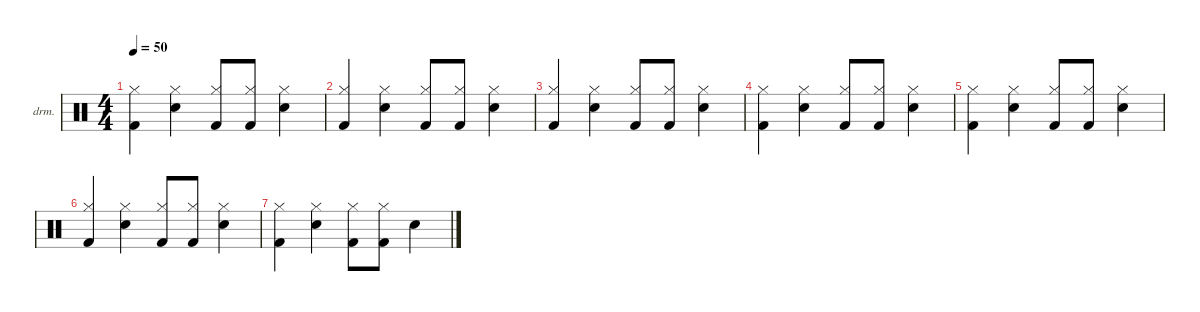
\defaultSystemsLayout 4
\hideDynamics
\bracketExtendMode nobrackets
\firstSystemTrackNameOrientation horizontal
\otherSystemsTrackNameOrientation horizontal
\track ("Drumkit" "drm.") {instrument percussion}
\staff {score}
\articulation defaults
\ts (4 4)
\tempo 50
\clef neutral
\ks c
("Kick (hit) 2" "Hi-Hat (closed)").4{dy mf beam Down} ("Snare (hit) 2" "Hi-Hat (closed)").4{beam Down} ("Kick (hit) 2" "Hi-Hat (closed)").8{beam Up} ("Kick (hit) 2" "Hi-Hat (closed)").8{beam Up} ("Snare (hit) 2" "Hi-Hat (closed)").4{beam Down} |
("Kick (hit) 2" "Hi-Hat (closed)").4{beam Up} ("Snare (hit) 2" "Hi-Hat (closed)").4{beam Down} ("Kick (hit) 2" "Hi-Hat (closed)").8{beam Up} ("Kick (hit) 2" "Hi-Hat (closed)").8{beam Up} ("Snare (hit) 2" "Hi-Hat (closed)").4{beam Down} |
("Kick (hit) 2" "Hi-Hat (closed)").4{beam Up} ("Snare (hit) 2" "Hi-Hat (closed)").4{beam Down} ("Kick (hit) 2" "Hi-Hat (closed)").8{beam Up} ("Kick (hit) 2" "Hi-Hat (closed)").8{beam Up} ("Snare (hit) 2" "Hi-Hat (closed)").4{beam Down} |
("Kick (hit) 2" "Hi-Hat (closed)").4{beam Down} ("Snare (hit) 2" "Hi-Hat (closed)").4{beam Down} ("Kick (hit) 2" "Hi-Hat (closed)").8{beam Up} ("Kick (hit) 2" "Hi-Hat (closed)").8{beam Up} ("Snare (hit) 2" "Hi-Hat (closed)").4{beam Down} |
("Kick (hit) 2" "Hi-Hat (closed)").4{beam Down} ("Snare (hit) 2" "Hi-Hat (closed)").4{beam Down} ("Kick (hit) 2" "Hi-Hat (closed)").8{beam Up} ("Kick (hit) 2" "Hi-Hat (closed)").8{beam Up} ("Snare (hit) 2" "Hi-Hat (closed)").4{beam Down} |
("Kick (hit) 2" "Hi-Hat (closed)").4{beam Up} ("Snare (hit) 2" "Hi-Hat (closed)").4{beam Down} ("Kick (hit) 2" "Hi-Hat (closed)").8{beam Up} ("Kick (hit) 2" "Hi-Hat (closed)").8{beam Up} ("Snare (hit) 2" "Hi-Hat (closed)").4{beam Down} |
("Kick (hit) 2" "Hi-Hat (closed)").4{beam Down} ("Snare (hit) 2" "Hi-Hat (closed)").4{beam Down} ("Kick (hit) 2" "Hi-Hat (closed)").8{beam Down} ("Kick (hit) 2" "Hi-Hat (closed)").8{beam Down} "Snare (hit) 2".4{beam Down}
